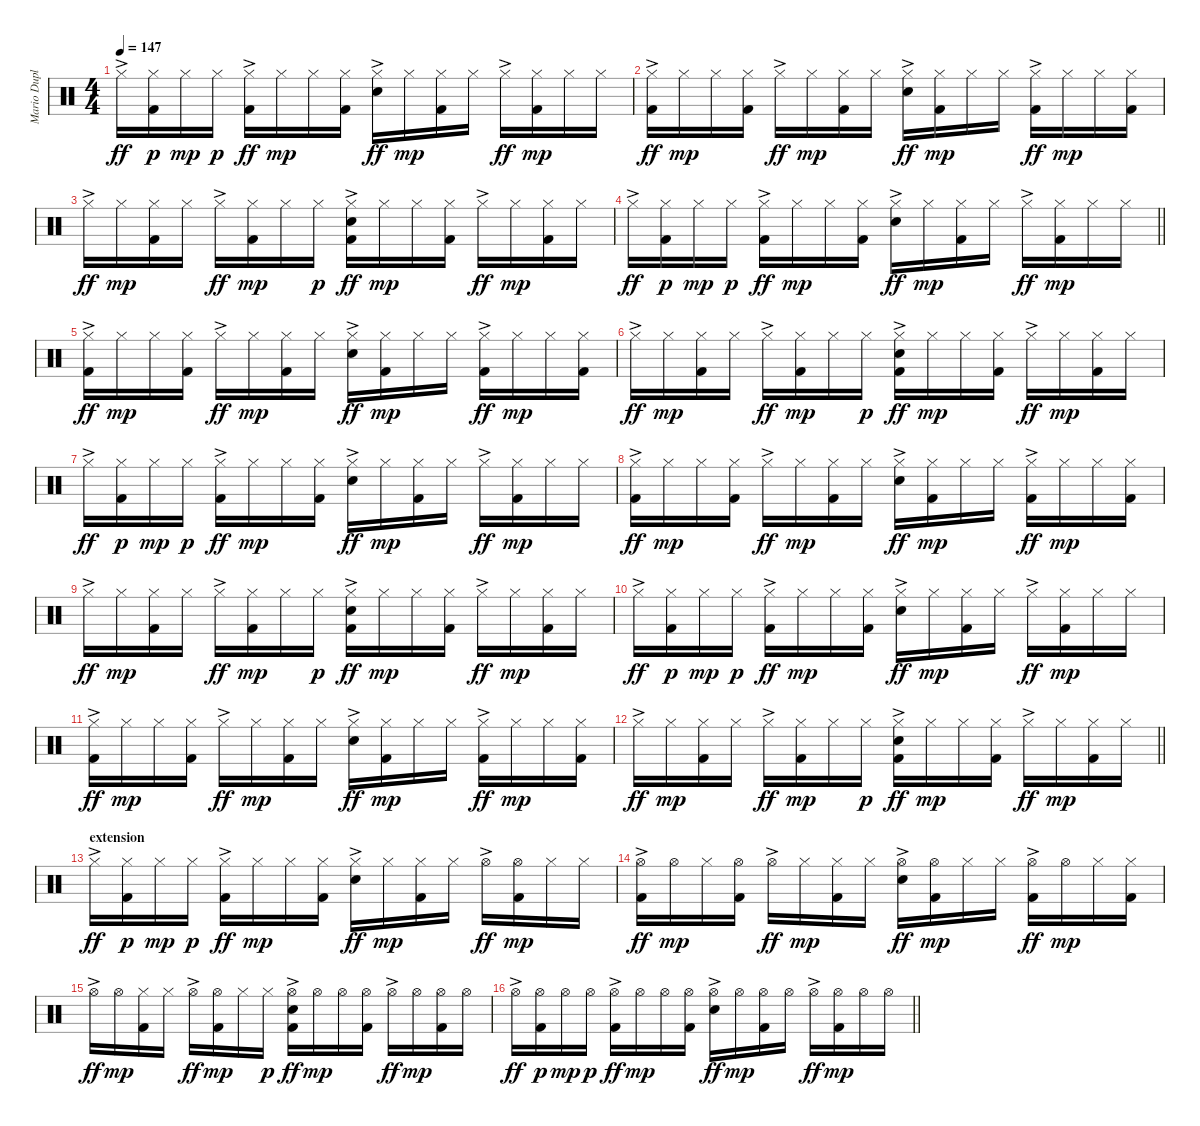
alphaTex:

\track ("Mario Duplantier - DRUMS" "Mario Dupl") {instrument percussion}
\staff {score}
\articulation defaults
\ts (4 4)
\tempo 147
\clef neutral
\ks c "Hi-Hat (closed)"{ac}.16{dy ff}
("Hi-Hat (closed)" "Kick (hit) 2").16{dy p} "Hi-Hat (closed)".16{dy mp} "Hi-Hat (closed)".16{dy p} ("Hi-Hat (closed)"{ac} "Kick (hit) 2").16{dy ff} "Hi-Hat (closed)".16{dy mp} "Hi-Hat (closed)".16 ("Hi-Hat (closed)" "Kick (hit) 2").16 ("Hi-Hat (closed)"{ac} "Electric Snare (hit)").16{dy ff} "Hi-Hat (closed)".16{dy mp} ("Hi-Hat (closed)" "Kick (hit) 2").16 "Hi-Hat (closed)".16 "Hi-Hat (closed)"{ac}.16{dy ff} ("Hi-Hat (closed)" "Kick (hit) 2").16{dy mp} "Hi-Hat (closed)".16 "Hi-Hat (closed)".16 |
("Hi-Hat (closed)"{ac} "Kick (hit) 2").16{dy ff} "Hi-Hat (closed)".16{dy mp} "Hi-Hat (closed)".16 ("Hi-Hat (closed)" "Kick (hit) 2").16 "Hi-Hat (closed)"{ac}.16{dy ff} "Hi-Hat (closed)".16{dy mp} ("Hi-Hat (closed)" "Kick (hit) 2").16 "Hi-Hat (closed)".16 ("Hi-Hat (closed)"{ac} "Electric Snare (hit)").16{dy ff} ("Hi-Hat (closed)" "Kick (hit) 2").16{dy mp} "Hi-Hat (closed)".16 "Hi-Hat (closed)".16 ("Hi-Hat (closed)"{ac} "Kick (hit) 2").16{dy ff} "Hi-Hat (closed)".16{dy mp} "Hi-Hat (closed)".16 ("Hi-Hat (closed)" "Kick (hit) 2").16 |
"Hi-Hat (closed)"{ac}.16{dy ff} "Hi-Hat (closed)".16{dy mp} ("Hi-Hat (closed)" "Kick (hit) 2").16 "Hi-Hat (closed)".16 "Hi-Hat (closed)"{ac}.16{dy ff} ("Hi-Hat (closed)" "Kick (hit) 2").16{dy mp} "Hi-Hat (closed)".16 "Hi-Hat (closed)".16{dy p} ("Hi-Hat (closed)"{ac} "Electric Snare (hit)" "Kick (hit) 2").16{dy ff} "Hi-Hat (closed)".16{dy mp} "Hi-Hat (closed)".16 ("Hi-Hat (closed)" "Kick (hit) 2").16 "Hi-Hat (closed)"{ac}.16{dy ff} "Hi-Hat (closed)".16{dy mp} ("Hi-Hat (closed)" "Kick (hit) 2").16 "Hi-Hat (closed)".16 |
\barLineRight lightlight "Hi-Hat (closed)"{ac}.16{dy ff}
("Hi-Hat (closed)" "Kick (hit) 2").16{dy p} "Hi-Hat (closed)".16{dy mp} "Hi-Hat (closed)".16{dy p} ("Hi-Hat (closed)"{ac} "Kick (hit) 2").16{dy ff} "Hi-Hat (closed)".16{dy mp} "Hi-Hat (closed)".16 ("Hi-Hat (closed)" "Kick (hit) 2").16 ("Hi-Hat (closed)"{ac} "Electric Snare (hit)").16{dy ff} "Hi-Hat (closed)".16{dy mp} ("Hi-Hat (closed)" "Kick (hit) 2").16 "Hi-Hat (closed)".16 "Hi-Hat (closed)"{ac}.16{dy ff} ("Hi-Hat (closed)" "Kick (hit) 2").16{dy mp} "Hi-Hat (closed)".16 "Hi-Hat (closed)".16 |
\section ("" "")
("Hi-Hat (closed)"{ac} "Kick (hit) 2").16{dy ff} "Hi-Hat (closed)".16{dy mp} "Hi-Hat (closed)".16 ("Hi-Hat (closed)" "Kick (hit) 2").16 "Hi-Hat (closed)"{ac}.16{dy ff} "Hi-Hat (closed)".16{dy mp} ("Hi-Hat (closed)" "Kick (hit) 2").16 "Hi-Hat (closed)".16 ("Hi-Hat (closed)"{ac} "Electric Snare (hit)").16{dy ff} ("Hi-Hat (closed)" "Kick (hit) 2").16{dy mp} "Hi-Hat (closed)".16 "Hi-Hat (closed)".16 ("Hi-Hat (closed)"{ac} "Kick (hit) 2").16{dy ff} "Hi-Hat (closed)".16{dy mp} "Hi-Hat (closed)".16 ("Hi-Hat (closed)" "Kick (hit) 2").16 |
"Hi-Hat (closed)"{ac}.16{dy ff} "Hi-Hat (closed)".16{dy mp} ("Hi-Hat (closed)" "Kick (hit) 2").16 "Hi-Hat (closed)".16 "Hi-Hat (closed)"{ac}.16{dy ff} ("Hi-Hat (closed)" "Kick (hit) 2").16{dy mp} "Hi-Hat (closed)".16 "Hi-Hat (closed)".16{dy p} ("Hi-Hat (closed)"{ac} "Electric Snare (hit)" "Kick (hit) 2").16{dy ff} "Hi-Hat (closed)".16{dy mp} "Hi-Hat (closed)".16 ("Hi-Hat (closed)" "Kick (hit) 2").16 "Hi-Hat (closed)"{ac}.16{dy ff} "Hi-Hat (closed)".16{dy mp} ("Hi-Hat (closed)" "Kick (hit) 2").16 "Hi-Hat (closed)".16 |
"Hi-Hat (closed)"{ac}.16{dy ff} ("Hi-Hat (closed)" "Kick (hit) 2").16{dy p} "Hi-Hat (closed)".16{dy mp} "Hi-Hat (closed)".16{dy p} ("Hi-Hat (closed)"{ac} "Kick (hit) 2").16{dy ff} "Hi-Hat (closed)".16{dy mp} "Hi-Hat (closed)".16 ("Hi-Hat (closed)" "Kick (hit) 2").16 ("Hi-Hat (closed)"{ac} "Electric Snare (hit)").16{dy ff} "Hi-Hat (closed)".16{dy mp} ("Hi-Hat (closed)" "Kick (hit) 2").16 "Hi-Hat (closed)".16 "Hi-Hat (closed)"{ac}.16{dy ff} ("Hi-Hat (closed)" "Kick (hit) 2").16{dy mp} "Hi-Hat (closed)".16 "Hi-Hat (closed)".16 |
("Hi-Hat (closed)"{ac} "Kick (hit) 2").16{dy ff} "Hi-Hat (closed)".16{dy mp} "Hi-Hat (closed)".16 ("Hi-Hat (closed)" "Kick (hit) 2").16 "Hi-Hat (closed)"{ac}.16{dy ff} "Hi-Hat (closed)".16{dy mp} ("Hi-Hat (closed)" "Kick (hit) 2").16 "Hi-Hat (closed)".16 ("Hi-Hat (closed)"{ac} "Electric Snare (hit)").16{dy ff} ("Hi-Hat (closed)" "Kick (hit) 2").16{dy mp} "Hi-Hat (closed)".16 "Hi-Hat (closed)".16 ("Hi-Hat (closed)"{ac} "Kick (hit) 2").16{dy ff} "Hi-Hat (closed)".16{dy mp} "Hi-Hat (closed)".16 ("Hi-Hat (closed)" "Kick (hit) 2").16 |
"Hi-Hat (closed)"{ac}.16{dy ff} "Hi-Hat (closed)".16{dy mp} ("Hi-Hat (closed)" "Kick (hit) 2").16 "Hi-Hat (closed)".16 "Hi-Hat (closed)"{ac}.16{dy ff} ("Hi-Hat (closed)" "Kick (hit) 2").16{dy mp} "Hi-Hat (closed)".16 "Hi-Hat (closed)".16{dy p} ("Hi-Hat (closed)"{ac} "Electric Snare (hit)" "Kick (hit) 2").16{dy ff} "Hi-Hat (closed)".16{dy mp} "Hi-Hat (closed)".16 ("Hi-Hat (closed)" "Kick (hit) 2").16 "Hi-Hat (closed)"{ac}.16{dy ff} "Hi-Hat (closed)".16{dy mp} ("Hi-Hat (closed)" "Kick (hit) 2").16 "Hi-Hat (closed)".16 |
"Hi-Hat (closed)"{ac}.16{dy ff} ("Hi-Hat (closed)" "Kick (hit) 2").16{dy p} "Hi-Hat (closed)".16{dy mp} "Hi-Hat (closed)".16{dy p} ("Hi-Hat (closed)"{ac} "Kick (hit) 2").16{dy ff} "Hi-Hat (closed)".16{dy mp} "Hi-Hat (closed)".16 ("Hi-Hat (closed)" "Kick (hit) 2").16 ("Hi-Hat (closed)"{ac} "Electric Snare (hit)").16{dy ff} "Hi-Hat (closed)".16{dy mp} ("Hi-Hat (closed)" "Kick (hit) 2").16 "Hi-Hat (closed)".16 "Hi-Hat (closed)"{ac}.16{dy ff} ("Hi-Hat (closed)" "Kick (hit) 2").16{dy mp} "Hi-Hat (closed)".16 "Hi-Hat (closed)".16 |
("Hi-Hat (closed)"{ac} "Kick (hit) 2").16{dy ff} "Hi-Hat (closed)".16{dy mp} "Hi-Hat (closed)".16 ("Hi-Hat (closed)" "Kick (hit) 2").16 "Hi-Hat (closed)"{ac}.16{dy ff} "Hi-Hat (closed)".16{dy mp} ("Hi-Hat (closed)" "Kick (hit) 2").16 "Hi-Hat (closed)".16 ("Hi-Hat (closed)"{ac} "Electric Snare (hit)").16{dy ff} ("Hi-Hat (closed)" "Kick (hit) 2").16{dy mp} "Hi-Hat (closed)".16 "Hi-Hat (closed)".16 ("Hi-Hat (closed)"{ac} "Kick (hit) 2").16{dy ff} "Hi-Hat (closed)".16{dy mp} "Hi-Hat (closed)".16 ("Hi-Hat (closed)" "Kick (hit) 2").16 |
\barLineRight lightlight "Hi-Hat (closed)"{ac}.16{dy ff} "Hi-Hat (closed)".16{dy mp}
("Hi-Hat (closed)" "Kick (hit) 2").16 "Hi-Hat (closed)".16 "Hi-Hat (closed)"{ac}.16{dy ff} ("Hi-Hat (closed)" "Kick (hit) 2").16{dy mp} "Hi-Hat (closed)".16 "Hi-Hat (closed)".16{dy p} ("Hi-Hat (closed)"{ac} "Electric Snare (hit)" "Kick (hit) 2").16{dy ff} "Hi-Hat (closed)".16{dy mp} "Hi-Hat (closed)".16 ("Hi-Hat (closed)" "Kick (hit) 2").16 "Hi-Hat (closed)"{ac}.16{dy ff} "Hi-Hat (closed)".16{dy mp} ("Hi-Hat (closed)" "Kick (hit) 2").16 "Hi-Hat (closed)".16 |
\section ("" "extension")
"Hi-Hat (closed)"{ac}.16{dy ff} ("Hi-Hat (closed)" "Kick (hit) 2").16{dy p} "Hi-Hat (closed)".16{dy mp} "Hi-Hat (closed)".16{dy p} ("Hi-Hat (closed)"{ac} "Kick (hit) 2").16{dy ff} "Hi-Hat (closed)".16{dy mp} "Hi-Hat (closed)".16 ("Hi-Hat (closed)" "Kick (hit) 2").16 ("Hi-Hat (closed)"{ac} "Electric Snare (hit)").16{dy ff} "Hi-Hat (closed)".16{dy mp} ("Hi-Hat (closed)" "Kick (hit) 2").16 "Hi-Hat (closed)".16 "Hi-Hat (open)"{ac}.16{dy ff} ("Hi-Hat (open)" "Kick (hit) 2").16{dy mp} "Hi-Hat (closed)".16 "Hi-Hat (closed)".16 |
("Hi-Hat (open)"{ac} "Kick (hit) 2").16{dy ff} "Hi-Hat (open)".16{dy mp} "Hi-Hat (closed)".16 ("Hi-Hat (open)" "Kick (hit) 2").16 "Hi-Hat (open)"{ac}.16{dy ff} "Hi-Hat (closed)".16{dy mp} ("Hi-Hat (closed)" "Kick (hit) 2").16 "Hi-Hat (closed)".16 ("Hi-Hat (open)"{ac} "Electric Snare (hit)").16{dy ff} ("Hi-Hat (open)" "Kick (hit) 2").16{dy mp} "Hi-Hat (closed)".16 "Hi-Hat (closed)".16 ("Hi-Hat (open)"{ac} "Kick (hit) 2").16{dy ff} "Hi-Hat (open)".16{dy mp} "Hi-Hat (closed)".16 ("Hi-Hat (closed)" "Kick (hit) 2").16 |
"Hi-Hat (open)"{ac}.16{dy ff} "Hi-Hat (open)".16{dy mp} ("Hi-Hat (closed)" "Kick (hit) 2").16 "Hi-Hat (closed)".16 "Hi-Hat (open)"{ac}.16{dy ff} ("Hi-Hat (open)" "Kick (hit) 2").16{dy mp} "Hi-Hat (closed)".16 "Hi-Hat (closed)".16{dy p} ("Hi-Hat (open)"{ac} "Electric Snare (hit)" "Kick (hit) 2").16{dy ff} "Hi-Hat (open)".16{dy mp} "Hi-Hat (open)".16 ("Hi-Hat (open)" "Kick (hit) 2").16 "Hi-Hat (open)"{ac}.16{dy ff} "Hi-Hat (open)".16{dy mp} ("Hi-Hat (open)" "Kick (hit) 2").16 "Hi-Hat (open)".16 |
\barLineRight lightlight "Hi-Hat (open)"{ac}.16{dy ff}
("Hi-Hat (open)" "Kick (hit) 2").16{dy p} "Hi-Hat (open)".16{dy mp} "Hi-Hat (open)".16{dy p} ("Hi-Hat (open)"{ac} "Kick (hit) 2").16{dy ff} "Hi-Hat (open)".16{dy mp} "Hi-Hat (open)".16 ("Hi-Hat (open)" "Kick (hit) 2").16 ("Hi-Hat (open)"{ac} "Electric Snare (hit)").16{dy ff} "Hi-Hat (open)".16{dy mp} ("Hi-Hat (open)" "Kick (hit) 2").16 "Hi-Hat (open)".16 "Hi-Hat (open)"{ac}.16{dy ff} ("Hi-Hat (open)" "Kick (hit) 2").16{dy mp} "Hi-Hat (open)".16 "Hi-Hat (open)".16
